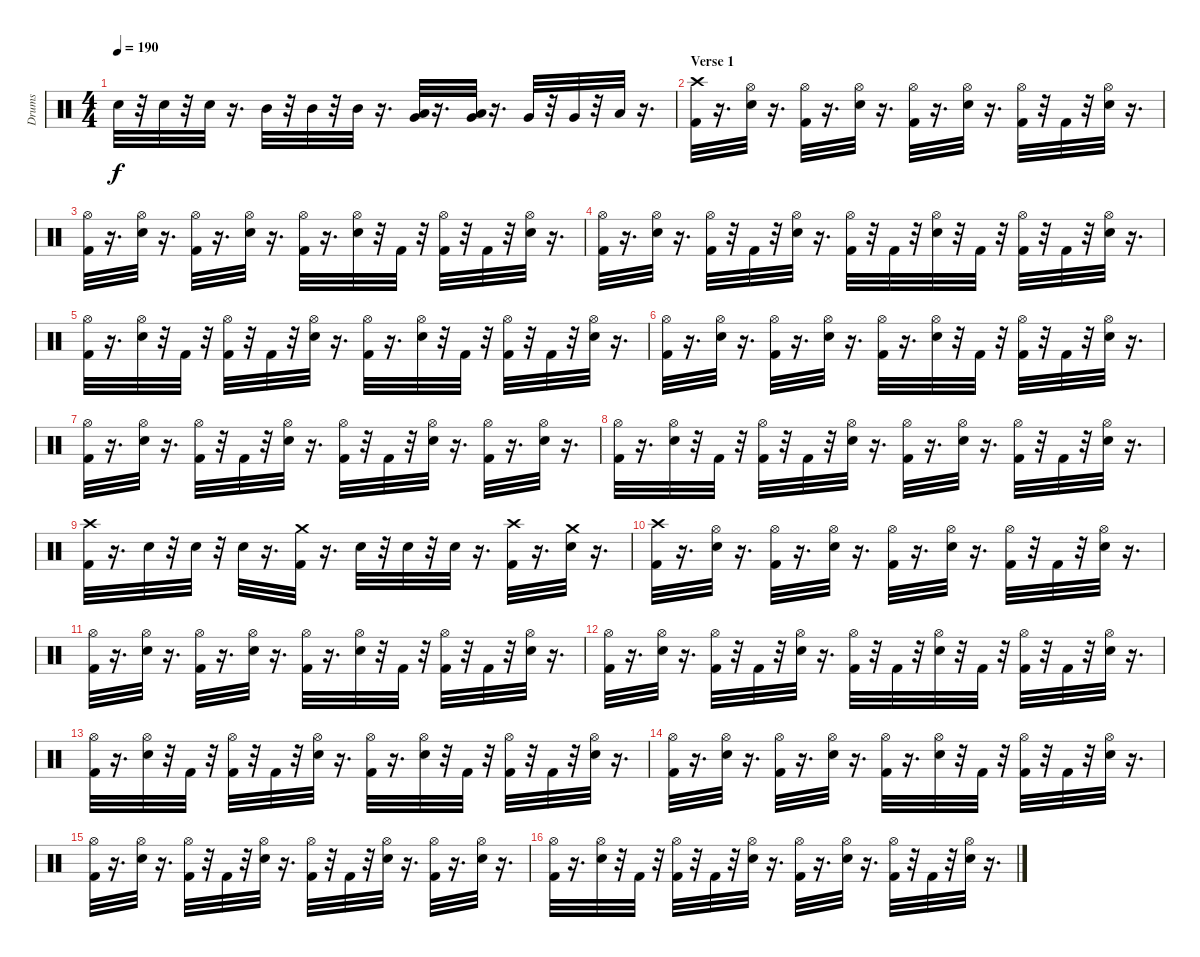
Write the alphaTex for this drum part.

\track ("Drums" "Drums") {instrument percussion}
\staff {score}
\articulation defaults
\ts (4 4)
\tempo 190
\clef neutral
\ks c "Snare (hit) 2".32{dy f}
r.32 "Snare (hit) 2".32 r.32 "Snare (hit) 2".32 r.16{d} "Mid Tom (hit)".32 r.32 "Mid Tom (hit)".32 r.32 "Mid Tom (hit)".32 r.16{d} ("Very Low Tom (hit)" "Low Tom (hit)").32 r.16{d} ("Very Low Tom (hit)" "Low Tom (hit)").32 r.16{d} "Very Low Tom (hit)".32 r.32 "Very Low Tom (hit)".32 r.32 "Low Floor Tom (hit)".32 r.16{d} |
\section ("" "Verse 1")
("Kick (hit) 2" "Crash high (hit)").32 r.16{d} ("Hi-Hat (open)" "Snare (hit) 2").32 r.16{d} ("Kick (hit) 2" "Hi-Hat (open)").32 r.16{d} ("Snare (hit) 2" "Hi-Hat (open)").32 r.16{d} ("Kick (hit) 2" "Hi-Hat (open)").32 r.16{d} ("Hi-Hat (open)" "Snare (hit) 2").32 r.16{d} ("Kick (hit) 2" "Hi-Hat (open)").32 r.32 "Kick (hit) 2".32 r.32 ("Hi-Hat (open)" "Snare (hit) 2").32 r.16{d} |
("Hi-Hat (open)" "Kick (hit) 2").32 r.16{d} ("Snare (hit) 2" "Hi-Hat (open)").32 r.16{d} ("Hi-Hat (open)" "Kick (hit) 2").32 r.16{d} ("Hi-Hat (open)" "Snare (hit) 2").32 r.16{d} ("Kick (hit) 2" "Hi-Hat (open)").32 r.16{d} ("Snare (hit) 2" "Hi-Hat (open)").32 r.32 "Kick (hit) 2".32 r.32 ("Hi-Hat (open)" "Kick (hit) 2").32 r.32 "Kick (hit) 2".32 r.32 ("Hi-Hat (open)" "Snare (hit) 2").32 r.16{d} |
("Kick (hit) 2" "Hi-Hat (open)").32 r.16{d} ("Hi-Hat (open)" "Snare (hit) 2").32 r.16{d} ("Hi-Hat (open)" "Kick (hit) 2").32 r.32 "Kick (hit) 2".32 r.32 ("Hi-Hat (open)" "Snare (hit) 2").32 r.16{d} ("Hi-Hat (open)" "Kick (hit) 2").32 r.32 "Kick (hit) 2".32 r.32 ("Snare (hit) 2" "Hi-Hat (open)").32 r.32 "Kick (hit) 2".32 r.32 ("Kick (hit) 2" "Hi-Hat (open)").32 r.32 "Kick (hit) 2".32 r.32 ("Hi-Hat (open)" "Snare (hit) 2").32 r.16{d} |
("Hi-Hat (open)" "Kick (hit) 2").32 r.16{d} ("Snare (hit) 2" "Hi-Hat (open)").32 r.32 "Kick (hit) 2".32 r.32 ("Kick (hit) 2" "Hi-Hat (open)").32 r.32 "Kick (hit) 2".32 r.32 ("Hi-Hat (open)" "Snare (hit) 2").32 r.16{d} ("Hi-Hat (open)" "Kick (hit) 2").32 r.16{d} ("Snare (hit) 2" "Hi-Hat (open)").32 r.32 "Kick (hit) 2".32 r.32 ("Hi-Hat (open)" "Kick (hit) 2").32 r.32 "Kick (hit) 2".32 r.32 ("Snare (hit) 2" "Hi-Hat (open)").32 r.16{d} |
("Kick (hit) 2" "Hi-Hat (open)").32 r.16{d} ("Snare (hit) 2" "Hi-Hat (open)").32 r.16{d} ("Kick (hit) 2" "Hi-Hat (open)").32 r.16{d} ("Snare (hit) 2" "Hi-Hat (open)").32 r.16{d} ("Hi-Hat (open)" "Kick (hit) 2").32 r.16{d} ("Hi-Hat (open)" "Snare (hit) 2").32 r.32 "Kick (hit) 2".32 r.32 ("Hi-Hat (open)" "Kick (hit) 2").32 r.32 "Kick (hit) 2".32 r.32 ("Snare (hit) 2" "Hi-Hat (open)").32 r.16{d} |
("Hi-Hat (open)" "Kick (hit) 2").32 r.16{d} ("Hi-Hat (open)" "Snare (hit) 2").32 r.16{d} ("Hi-Hat (open)" "Kick (hit) 2").32 r.32 "Kick (hit) 2".32 r.32 ("Hi-Hat (open)" "Snare (hit) 2").32 r.16{d} ("Hi-Hat (open)" "Kick (hit) 2").32 r.32 "Kick (hit) 2".32 r.32 ("Hi-Hat (open)" "Snare (hit) 2").32 r.16{d} ("Kick (hit) 2" "Hi-Hat (open)").32 r.16{d} ("Snare (hit) 2" "Hi-Hat (open)").32 r.16{d} |
("Hi-Hat (open)" "Kick (hit) 2").32 r.16{d} ("Hi-Hat (open)" "Snare (hit) 2").32 r.32 "Kick (hit) 2".32 r.32 ("Hi-Hat (open)" "Kick (hit) 2").32 r.32 "Kick (hit) 2".32 r.32 ("Snare (hit) 2" "Hi-Hat (open)").32 r.16{d} ("Hi-Hat (open)" "Kick (hit) 2").32 r.16{d} ("Hi-Hat (open)" "Snare (hit) 2").32 r.16{d} ("Kick (hit) 2" "Hi-Hat (open)").32 r.32 "Kick (hit) 2".32 r.32 ("Hi-Hat (open)" "Snare (hit) 2").32 r.16{d} |
("Kick (hit) 2" "Crash high (hit)").32 r.16{d} "Snare (hit) 2".32 r.32 "Snare (hit) 2".32 r.32 "Snare (hit) 2".32 r.16{d} ("Kick (hit) 2" "Crash medium (hit)").32 r.16{d} "Snare (hit) 2".32 r.32 "Snare (hit) 2".32 r.32 "Snare (hit) 2".32 r.16{d} ("Crash high (hit)" "Kick (hit) 2").32 r.16{d} ("Snare (hit) 2" "Crash medium (hit)").32 r.16{d} |
("Crash high (hit)" "Kick (hit) 2").32 r.16{d} ("Hi-Hat (open)" "Snare (hit) 2").32 r.16{d} ("Kick (hit) 2" "Hi-Hat (open)").32 r.16{d} ("Hi-Hat (open)" "Snare (hit) 2").32 r.16{d} ("Kick (hit) 2" "Hi-Hat (open)").32 r.16{d} ("Snare (hit) 2" "Hi-Hat (open)").32 r.16{d} ("Hi-Hat (open)" "Kick (hit) 2").32 r.32 "Kick (hit) 2".32 r.32 ("Hi-Hat (open)" "Snare (hit) 2").32 r.16{d} |
("Kick (hit) 2" "Hi-Hat (open)").32 r.16{d} ("Hi-Hat (open)" "Snare (hit) 2").32 r.16{d} ("Kick (hit) 2" "Hi-Hat (open)").32 r.16{d} ("Hi-Hat (open)" "Snare (hit) 2").32 r.16{d} ("Kick (hit) 2" "Hi-Hat (open)").32 r.16{d} ("Snare (hit) 2" "Hi-Hat (open)").32 r.32 "Kick (hit) 2".32 r.32 ("Kick (hit) 2" "Hi-Hat (open)").32 r.32 "Kick (hit) 2".32 r.32 ("Snare (hit) 2" "Hi-Hat (open)").32 r.16{d} |
("Kick (hit) 2" "Hi-Hat (open)").32 r.16{d} ("Snare (hit) 2" "Hi-Hat (open)").32 r.16{d} ("Kick (hit) 2" "Hi-Hat (open)").32 r.32 "Kick (hit) 2".32 r.32 ("Hi-Hat (open)" "Snare (hit) 2").32 r.16{d} ("Hi-Hat (open)" "Kick (hit) 2").32 r.32 "Kick (hit) 2".32 r.32 ("Snare (hit) 2" "Hi-Hat (open)").32 r.32 "Kick (hit) 2".32 r.32 ("Hi-Hat (open)" "Kick (hit) 2").32 r.32 "Kick (hit) 2".32 r.32 ("Snare (hit) 2" "Hi-Hat (open)").32 r.16{d} |
("Kick (hit) 2" "Hi-Hat (open)").32 r.16{d} ("Hi-Hat (open)" "Snare (hit) 2").32 r.32 "Kick (hit) 2".32 r.32 ("Hi-Hat (open)" "Kick (hit) 2").32 r.32 "Kick (hit) 2".32 r.32 ("Hi-Hat (open)" "Snare (hit) 2").32 r.16{d} ("Hi-Hat (open)" "Kick (hit) 2").32 r.16{d} ("Hi-Hat (open)" "Snare (hit) 2").32 r.32 "Kick (hit) 2".32 r.32 ("Kick (hit) 2" "Hi-Hat (open)").32 r.32 "Kick (hit) 2".32 r.32 ("Hi-Hat (open)" "Snare (hit) 2").32 r.16{d} |
("Kick (hit) 2" "Hi-Hat (open)").32 r.16{d} ("Hi-Hat (open)" "Snare (hit) 2").32 r.16{d} ("Hi-Hat (open)" "Kick (hit) 2").32 r.16{d} ("Hi-Hat (open)" "Snare (hit) 2").32 r.16{d} ("Kick (hit) 2" "Hi-Hat (open)").32 r.16{d} ("Snare (hit) 2" "Hi-Hat (open)").32 r.32 "Kick (hit) 2".32 r.32 ("Kick (hit) 2" "Hi-Hat (open)").32 r.32 "Kick (hit) 2".32 r.32 ("Hi-Hat (open)" "Snare (hit) 2").32 r.16{d} |
("Hi-Hat (open)" "Kick (hit) 2").32 r.16{d} ("Hi-Hat (open)" "Snare (hit) 2").32 r.16{d} ("Kick (hit) 2" "Hi-Hat (open)").32 r.32 "Kick (hit) 2".32 r.32 ("Snare (hit) 2" "Hi-Hat (open)").32 r.16{d} ("Kick (hit) 2" "Hi-Hat (open)").32 r.32 "Kick (hit) 2".32 r.32 ("Hi-Hat (open)" "Snare (hit) 2").32 r.16{d} ("Hi-Hat (open)" "Kick (hit) 2").32 r.16{d} ("Hi-Hat (open)" "Snare (hit) 2").32 r.16{d} |
("Hi-Hat (open)" "Kick (hit) 2").32 r.16{d} ("Hi-Hat (open)" "Snare (hit) 2").32 r.32 "Kick (hit) 2".32 r.32 ("Hi-Hat (open)" "Kick (hit) 2").32 r.32 "Kick (hit) 2".32 r.32 ("Snare (hit) 2" "Hi-Hat (open)").32 r.16{d} ("Kick (hit) 2" "Hi-Hat (open)").32 r.16{d} ("Hi-Hat (open)" "Snare (hit) 2").32 r.16{d} ("Hi-Hat (open)" "Kick (hit) 2").32 r.32 "Kick (hit) 2".32 r.32 ("Snare (hit) 2" "Hi-Hat (open)").32 r.16{d}
